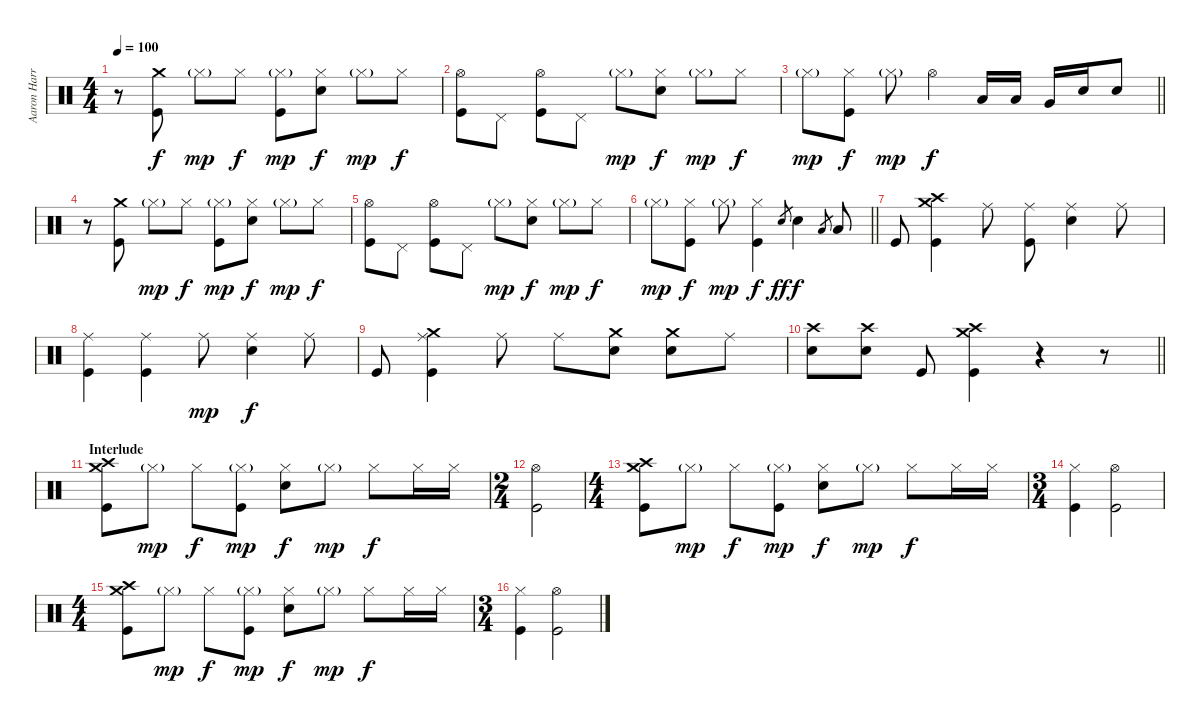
\track ("Aaron Harris" "Aaron Harr") {instrument percussion}
\staff {score}
\articulation defaults
\ts (4 4)
\tempo 100
\clef neutral
\ks c
r.8{dy f} ("Crash medium (hit)" "Kick (hit)").8 "Hi-Hat (closed)"{g}.8{dy mp} "Hi-Hat (closed)".8{dy f} ("Hi-Hat (closed)"{g} "Kick (hit)").8{dy mp} ("Hi-Hat (closed)" "Electric Snare (hit)").8{dy f} "Hi-Hat (closed)"{g}.8{dy mp} "Hi-Hat (closed)".8{dy f} |
("Hi-Hat (open)" "Kick (hit)").8 "Pedal Hi-Hat (hit)".8 ("Hi-Hat (open)" "Kick (hit)").8 "Pedal Hi-Hat (hit)".8 "Hi-Hat (closed)"{g}.8{dy mp} ("Hi-Hat (closed)" "Electric Snare (hit)").8{dy f} "Hi-Hat (closed)"{g}.8{dy mp} "Hi-Hat (closed)".8{dy f} |
\barLineRight lightlight "Hi-Hat (closed)"{g}.8{dy mp}
("Hi-Hat (closed)" "Kick (hit)").8{dy f} "Hi-Hat (closed)"{g}.8{dy mp} "Hi-Hat (open)".4{dy f} "Low Tom (hit)".16 "Low Tom (hit)".16 "Very Low Tom (hit)".16 "Electric Snare (hit)".16 "Electric Snare (hit)".8 |
r.8 ("Crash medium (hit)" "Kick (hit)").8 "Hi-Hat (closed)"{g}.8{dy mp} "Hi-Hat (closed)".8{dy f} ("Hi-Hat (closed)"{g} "Kick (hit)").8{dy mp} ("Hi-Hat (closed)" "Electric Snare (hit)").8{dy f} "Hi-Hat (closed)"{g}.8{dy mp} "Hi-Hat (closed)".8{dy f} |
("Hi-Hat (open)" "Kick (hit)").8 "Pedal Hi-Hat (hit)".8 ("Hi-Hat (open)" "Kick (hit)").8 "Pedal Hi-Hat (hit)".8 "Hi-Hat (closed)"{g}.8{dy mp} ("Hi-Hat (closed)" "Electric Snare (hit)").8{dy f} "Hi-Hat (closed)"{g}.8{dy mp} "Hi-Hat (closed)".8{dy f} |
\barLineRight lightlight "Hi-Hat (closed)"{g}.8{dy mp}
("Hi-Hat (closed)" "Kick (hit)").8{dy f} "Hi-Hat (closed)"{g}.8{dy mp} ("Hi-Hat (closed)" "Kick (hit)").4{dy f} "Electric Snare (hit)".8{gr dy ff} "Electric Snare (hit)".4{dy f} "Low Tom (hit)".8{gr} "Low Tom (hit)".8 |
"Kick (hit)".8 ("Crash medium (hit)" "Crash high (hit)" "Kick (hit)").4 "Ride (middle)".8 ("Ride (middle)" "Kick (hit)").8 ("Ride (middle)" "Electric Snare (hit)").4 "Ride (middle)".8 |
("Ride (middle)" "Kick (hit)").4 ("Ride (middle)" "Kick (hit)").4 "Ride (middle)".8{dy mp} ("Ride (middle)" "Electric Snare (hit)").4{dy f} "Ride (middle)".8 |
"Kick (hit)".8 ("Crash medium (hit)" "Ride (middle)" "Kick (hit)").4 "Ride (middle)".8 "Ride (middle)".8 ("Crash medium (hit)" "Electric Snare (hit)").8 ("Crash medium (hit)" "Electric Snare (hit)").8 "Ride (middle)".8 |
\barLineRight lightlight
("Crash high (hit)" "Electric Snare (hit)").8 ("Crash high (hit)" "Electric Snare (hit)").8 "Kick (hit)".8 ("Crash medium (hit)" "Crash high (hit)" "Kick (hit)").4 r.4 r.8 |
\section ("" "Interlude")
("Crash medium (hit)" "Crash high (hit)" "Kick (hit)").8 "Hi-Hat (closed)"{g}.8{dy mp} "Hi-Hat (closed)".8{dy f} ("Hi-Hat (closed)"{g} "Kick (hit)").8{dy mp} ("Hi-Hat (closed)" "Electric Snare (hit)").8{dy f} "Hi-Hat (closed)"{g}.8{dy mp} "Hi-Hat (closed)".8{dy f} "Hi-Hat (closed)".16 "Hi-Hat (closed)".16 |
\ts (2 4)
("Hi-Hat (open)" "Kick (hit)").2 |
\ts (4 4)
("Crash medium (hit)" "Crash high (hit)" "Kick (hit)").8 "Hi-Hat (closed)"{g}.8{dy mp} "Hi-Hat (closed)".8{dy f} ("Hi-Hat (closed)"{g} "Kick (hit)").8{dy mp} ("Hi-Hat (closed)" "Electric Snare (hit)").8{dy f} "Hi-Hat (closed)"{g}.8{dy mp} "Hi-Hat (closed)".8{dy f} "Hi-Hat (closed)".16 "Hi-Hat (closed)".16 |
\ts (3 4)
("Hi-Hat (closed)" "Kick (hit)").4 ("Hi-Hat (open)" "Kick (hit)").2 |
\ts (4 4)
("Crash medium (hit)" "Crash high (hit)" "Kick (hit)").8 "Hi-Hat (closed)"{g}.8{dy mp} "Hi-Hat (closed)".8{dy f} ("Hi-Hat (closed)"{g} "Kick (hit)").8{dy mp} ("Hi-Hat (closed)" "Electric Snare (hit)").8{dy f} "Hi-Hat (closed)"{g}.8{dy mp} "Hi-Hat (closed)".8{dy f} "Hi-Hat (closed)".16 "Hi-Hat (closed)".16 |
\ts (3 4)
("Hi-Hat (closed)" "Kick (hit)").4 ("Hi-Hat (open)" "Kick (hit)").2
